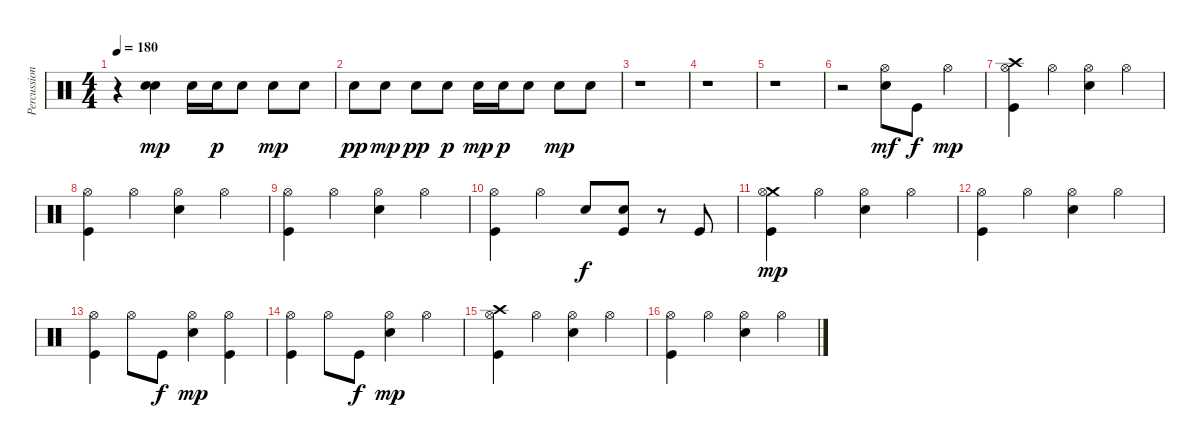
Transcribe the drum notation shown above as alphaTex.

\track ("Percussion" "Percussion") {instrument percussion}
\staff {score}
\articulation defaults
\ts (4 4)
\tempo 180
\clef neutral
\ks c
r.4{dy mp} ("Snare (hit) 2" "Snare (hit) 2").4 "Snare (hit) 2".16 "Snare (hit) 2".16{dy p} "Snare (hit) 2".8 "Snare (hit) 2".8{dy mp} "Snare (hit) 2".8 |
"Snare (hit) 2".8{dy pp} "Snare (hit) 2".8{dy mp} "Snare (hit) 2".8{dy pp} "Snare (hit) 2".8{dy p} "Snare (hit) 2".16{dy mp} "Snare (hit) 2".16{dy p} "Snare (hit) 2".8 "Snare (hit) 2".8{dy mp} "Snare (hit) 2".8 |
r.1 |
r.1 |
r.1 |
r.2 ("Hi-Hat (open)" "Snare (hit) 2").8{dy mf volume 13 balance 8} "Kick (hit)".8{dy f} "Hi-Hat (open)".4{dy mp} |
("Crash high (hit)" "Hi-Hat (open)" "Kick (hit)").4 "Hi-Hat (open)".4 ("Hi-Hat (open)" "Snare (hit) 2").4 "Hi-Hat (open)".4 |
("Hi-Hat (open)" "Kick (hit)").4 "Hi-Hat (open)".4 ("Hi-Hat (open)" "Snare (hit) 2").4 "Hi-Hat (open)".4 |
("Hi-Hat (open)" "Kick (hit)").4 "Hi-Hat (open)".4 ("Hi-Hat (open)" "Snare (hit) 2").4 "Hi-Hat (open)".4 |
("Hi-Hat (open)" "Kick (hit)").4 "Hi-Hat (open)".4 "Snare (hit) 2".8{dy f} ("Snare (hit) 2" "Kick (hit)").8 r.8 "Kick (hit)".8 |
("Crash medium (hit)" "Hi-Hat (open)" "Kick (hit)").4{dy mp} "Hi-Hat (open)".4 ("Hi-Hat (open)" "Snare (hit) 2").4 "Hi-Hat (open)".4 |
("Hi-Hat (open)" "Kick (hit)").4 "Hi-Hat (open)".4 ("Hi-Hat (open)" "Snare (hit) 2").4 "Hi-Hat (open)".4 |
("Hi-Hat (open)" "Kick (hit)").4 "Hi-Hat (open)".8 "Kick (hit)".8{dy f} ("Hi-Hat (open)" "Snare (hit) 2").4{dy mp} ("Hi-Hat (open)" "Kick (hit)").4 |
("Hi-Hat (open)" "Kick (hit)").4 "Hi-Hat (open)".8 "Kick (hit)".8{dy f} ("Hi-Hat (open)" "Snare (hit) 2").4{dy mp} "Hi-Hat (open)".4 |
("Crash high (hit)" "Hi-Hat (open)" "Kick (hit)").4 "Hi-Hat (open)".4 ("Hi-Hat (open)" "Snare (hit) 2").4 "Hi-Hat (open)".4 |
("Hi-Hat (open)" "Kick (hit)").4 "Hi-Hat (open)".4 ("Hi-Hat (open)" "Snare (hit) 2").4 "Hi-Hat (open)".4
